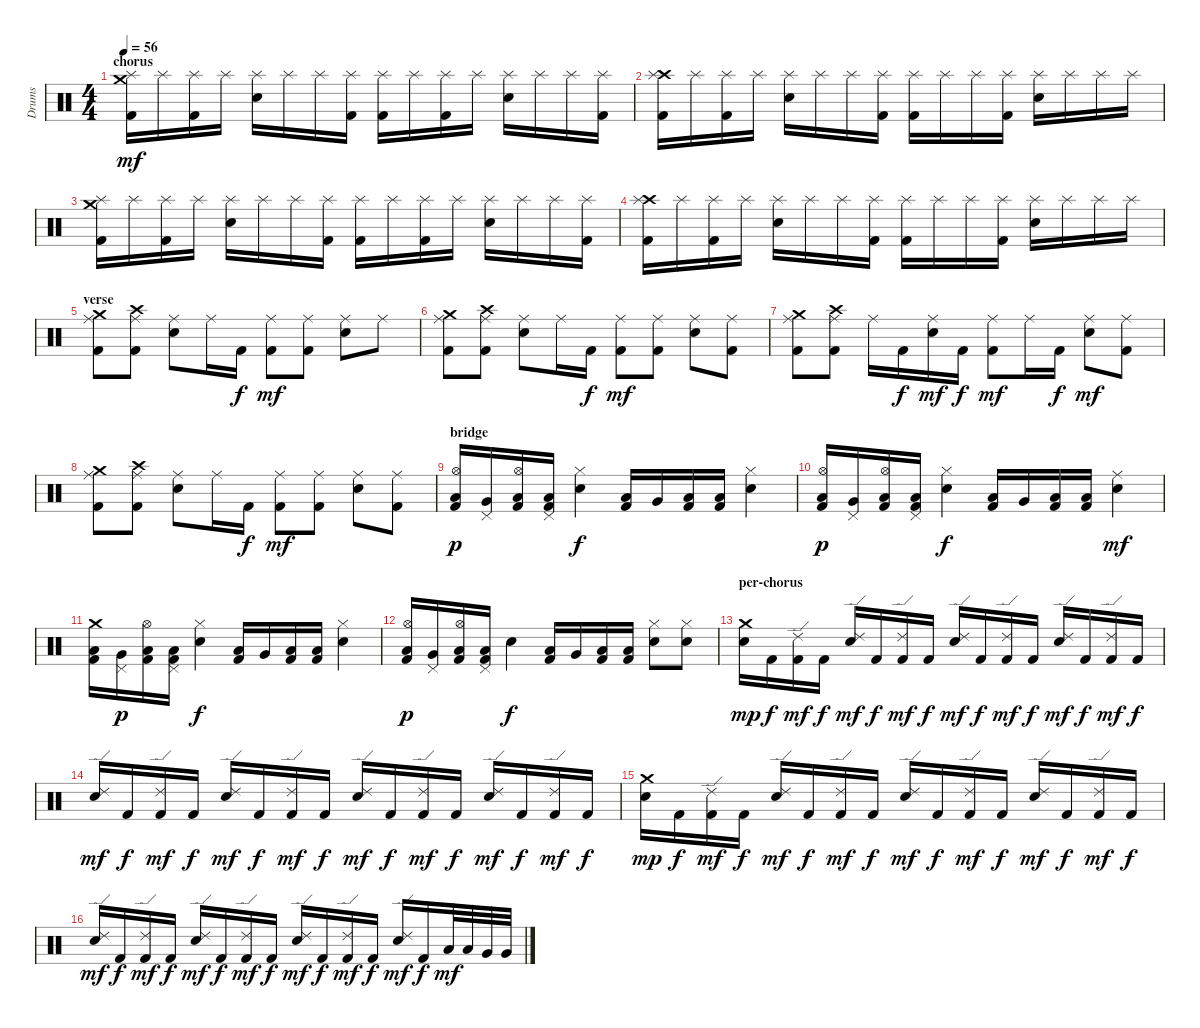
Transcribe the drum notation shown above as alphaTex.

\track ("Drums" "Drums") {instrument percussion}
\staff {score}
\articulation defaults
\ts (4 4)
\section ("" "chorus")
\tempo 56
\clef neutral
\ks c
("Crash medium (hit)" "Splash (hit)" "Kick (hit) 2").16{dy mf} "Splash (hit)".16 ("Splash (hit)" "Kick (hit) 2").16 "Splash (hit)".16 ("Splash (hit)" "Snare (hit) 2").16 "Splash (hit)".16 "Splash (hit)".16 ("Splash (hit)" "Kick (hit) 2").16 ("Splash (hit)" "Kick (hit) 2").16 "Splash (hit)".16 ("Splash (hit)" "Kick (hit) 2").16 "Splash (hit)".16 ("Splash (hit)" "Snare (hit) 2").16 "Splash (hit)".16 "Splash (hit)".16 ("Splash (hit)" "Kick (hit) 2").16 |
("Crash high (hit)" "Splash (hit)" "Kick (hit) 2").16 "Splash (hit)".16 ("Splash (hit)" "Kick (hit) 2").16 "Splash (hit)".16 ("Splash (hit)" "Snare (hit) 2").16 "Splash (hit)".16 "Splash (hit)".16 ("Splash (hit)" "Kick (hit) 2").16 ("Splash (hit)" "Kick (hit) 2").16 "Splash (hit)".16 "Splash (hit)".16 ("Splash (hit)" "Kick (hit) 2").16 ("Splash (hit)" "Snare (hit) 2").16 "Splash (hit)".16 "Splash (hit)".16 "Splash (hit)".16 |
("Crash medium (hit)" "Splash (hit)" "Kick (hit) 2").16 "Splash (hit)".16 ("Splash (hit)" "Kick (hit) 2").16 "Splash (hit)".16 ("Splash (hit)" "Snare (hit) 2").16 "Splash (hit)".16 "Splash (hit)".16 ("Splash (hit)" "Kick (hit) 2").16 ("Splash (hit)" "Kick (hit) 2").16 "Splash (hit)".16 ("Splash (hit)" "Kick (hit) 2").16 "Splash (hit)".16 ("Splash (hit)" "Snare (hit) 2").16 "Splash (hit)".16 "Splash (hit)".16 ("Splash (hit)" "Kick (hit) 2").16 |
("Crash high (hit)" "Splash (hit)" "Kick (hit) 2").16 "Splash (hit)".16 ("Splash (hit)" "Kick (hit) 2").16 "Splash (hit)".16 ("Splash (hit)" "Snare (hit) 2").16 "Splash (hit)".16 "Splash (hit)".16 ("Splash (hit)" "Kick (hit) 2").16 ("Splash (hit)" "Kick (hit) 2").16 "Splash (hit)".16 "Splash (hit)".16 ("Splash (hit)" "Kick (hit) 2").16 ("Splash (hit)" "Snare (hit) 2").16 "Splash (hit)".16 "Splash (hit)".16 "Splash (hit)".16 |
\section ("" "verse")
("Crash medium (hit)" "Ride (middle)" "Kick (hit) 2").8 ("Crash high (hit)" "Ride (middle)" "Kick (hit) 2").8 ("Ride (middle)" "Snare (hit) 2").8 "Ride (middle)".16 "Kick (hit) 2".16{dy f} ("Ride (middle)" "Kick (hit) 2").8{dy mf} ("Ride (middle)" "Kick (hit) 2").8 ("Ride (middle)" "Snare (hit) 2").8 "Ride (middle)".8 |
("Crash medium (hit)" "Ride (middle)" "Kick (hit) 2").8 ("Crash high (hit)" "Ride (middle)" "Kick (hit) 2").8 ("Ride (middle)" "Snare (hit) 2").8 "Ride (middle)".16 "Kick (hit) 2".16{dy f} ("Ride (middle)" "Kick (hit) 2").8{dy mf} ("Ride (middle)" "Kick (hit) 2").8 ("Ride (middle)" "Snare (hit) 2").8 ("Ride (middle)" "Kick (hit) 2").8 |
("Crash medium (hit)" "Ride (middle)" "Kick (hit) 2").8 ("Crash high (hit)" "Ride (middle)" "Kick (hit) 2").8 "Ride (middle)".16 "Kick (hit) 2".16{dy f} ("Ride (middle)" "Snare (hit) 2").16{dy mf} "Kick (hit) 2".16{dy f} ("Ride (middle)" "Kick (hit) 2").8{dy mf} "Ride (middle)".16 "Kick (hit) 2".16{dy f} ("Ride (middle)" "Snare (hit) 2").8{dy mf} ("Ride (middle)" "Kick (hit) 2").8 |
("Crash medium (hit)" "Ride (middle)" "Kick (hit) 2").8 ("Crash high (hit)" "Ride (middle)" "Kick (hit) 2").8 ("Ride (middle)" "Snare (hit) 2").8 "Ride (middle)".16 "Kick (hit) 2".16{dy f} ("Ride (middle)" "Kick (hit) 2").8{dy mf} ("Ride (middle)" "Kick (hit) 2").8 ("Ride (middle)" "Snare (hit) 2").8 ("Ride (middle)" "Kick (hit) 2").8 |
\section ("" "bridge")
("Hi-Hat (open)" "Low Floor Tom (hit)" "Kick (hit) 2").16{dy p} ("Pedal Hi-Hat (hit)" "Very Low Tom (hit)").16 ("Hi-Hat (open)" "Low Floor Tom (hit)" "Kick (hit) 2").16 ("Pedal Hi-Hat (hit)" "Low Floor Tom (hit)" "Kick (hit) 2").16 ("Hi-Hat (closed)" "Snare (hit) 2").4{dy f} ("Low Floor Tom (hit)" "Kick (hit) 2").16 "Very Low Tom (hit)".16 ("Low Floor Tom (hit)" "Kick (hit) 2").16 ("Low Floor Tom (hit)" "Kick (hit) 2").16 ("Hi-Hat (closed)" "Snare (hit) 2").4 |
("Hi-Hat (open)" "Low Floor Tom (hit)" "Kick (hit) 2").16{dy p} ("Pedal Hi-Hat (hit)" "Very Low Tom (hit)").16 ("Hi-Hat (open)" "Low Floor Tom (hit)" "Kick (hit) 2").16 ("Pedal Hi-Hat (hit)" "Low Floor Tom (hit)" "Kick (hit) 2").16 ("Hi-Hat (closed)" "Snare (hit) 2").4{dy f} ("Low Floor Tom (hit)" "Kick (hit) 2").16 "Very Low Tom (hit)".16 ("Low Floor Tom (hit)" "Kick (hit) 2").16 ("Low Floor Tom (hit)" "Kick (hit) 2").16 ("Ride (middle)" "Snare (hit) 2").4{dy mf} |
("Crash medium (hit)" "Low Floor Tom (hit)" "Kick (hit) 2").16 ("Pedal Hi-Hat (hit)" "Very Low Tom (hit)").16{dy p} ("Hi-Hat (open)" "Low Floor Tom (hit)" "Kick (hit) 2").16 ("Pedal Hi-Hat (hit)" "Low Floor Tom (hit)" "Kick (hit) 2").16 ("Hi-Hat (closed)" "Snare (hit) 2").4{dy f} ("Low Floor Tom (hit)" "Kick (hit) 2").16 "Very Low Tom (hit)".16 ("Low Floor Tom (hit)" "Kick (hit) 2").16 ("Low Floor Tom (hit)" "Kick (hit) 2").16 ("Hi-Hat (closed)" "Snare (hit) 2").4 |
("Hi-Hat (open)" "Low Floor Tom (hit)" "Kick (hit) 2").16{dy p} ("Pedal Hi-Hat (hit)" "Very Low Tom (hit)").16 ("Hi-Hat (open)" "Low Floor Tom (hit)" "Kick (hit) 2").16 ("Pedal Hi-Hat (hit)" "Low Floor Tom (hit)" "Kick (hit) 2").16 "Snare (hit) 2".4{dy f} ("Low Floor Tom (hit)" "Kick (hit) 2").16 "Very Low Tom (hit)".16 ("Low Floor Tom (hit)" "Kick (hit) 2").16 ("Low Floor Tom (hit)" "Kick (hit) 2").16 ("Hi-Hat (closed)" "Snare (hit) 2").8 ("Hi-Hat (closed)" "Snare (hit) 2").8 |
\section ("" "per-chorus")
("Crash medium (hit)" "Snare (hit) 2").16{dy mp} "Kick (hit) 2".16{dy f} ("Ride (edge) 2" "Kick (hit) 2").16{dy mf} "Kick (hit) 2".16{dy f} ("Ride (edge) 2" "Snare (hit) 2").16{dy mf} "Kick (hit) 2".16{dy f} ("Ride (edge) 2" "Kick (hit) 2").16{dy mf} "Kick (hit) 2".16{dy f} ("Ride (edge) 2" "Snare (hit) 2").16{dy mf} "Kick (hit) 2".16{dy f} ("Ride (edge) 2" "Kick (hit) 2").16{dy mf} "Kick (hit) 2".16{dy f} ("Ride (edge) 2" "Snare (hit) 2").16{dy mf} "Kick (hit) 2".16{dy f} ("Ride (edge) 2" "Kick (hit) 2").16{dy mf} "Kick (hit) 2".16{dy f} |
("Ride (edge) 2" "Snare (hit) 2").16{dy mf} "Kick (hit) 2".16{dy f} ("Ride (edge) 2" "Kick (hit) 2").16{dy mf} "Kick (hit) 2".16{dy f} ("Ride (edge) 2" "Snare (hit) 2").16{dy mf} "Kick (hit) 2".16{dy f} ("Ride (edge) 2" "Kick (hit) 2").16{dy mf} "Kick (hit) 2".16{dy f} ("Ride (edge) 2" "Snare (hit) 2").16{dy mf} "Kick (hit) 2".16{dy f} ("Ride (edge) 2" "Kick (hit) 2").16{dy mf} "Kick (hit) 2".16{dy f} ("Ride (edge) 2" "Snare (hit) 2").16{dy mf} "Kick (hit) 2".16{dy f} ("Ride (edge) 2" "Kick (hit) 2").16{dy mf} "Kick (hit) 2".16{dy f} |
("Crash medium (hit)" "Snare (hit) 2").16{dy mp} "Kick (hit) 2".16{dy f} ("Ride (edge) 2" "Kick (hit) 2").16{dy mf} "Kick (hit) 2".16{dy f} ("Ride (edge) 2" "Snare (hit) 2").16{dy mf} "Kick (hit) 2".16{dy f} ("Ride (edge) 2" "Kick (hit) 2").16{dy mf} "Kick (hit) 2".16{dy f} ("Ride (edge) 2" "Snare (hit) 2").16{dy mf} "Kick (hit) 2".16{dy f} ("Ride (edge) 2" "Kick (hit) 2").16{dy mf} "Kick (hit) 2".16{dy f} ("Ride (edge) 2" "Snare (hit) 2").16{dy mf} "Kick (hit) 2".16{dy f} ("Ride (edge) 2" "Kick (hit) 2").16{dy mf} "Kick (hit) 2".16{dy f} |
("Ride (edge) 2" "Snare (hit) 2").16{dy mf} "Kick (hit) 2".16{dy f} ("Ride (edge) 2" "Kick (hit) 2").16{dy mf} "Kick (hit) 2".16{dy f} ("Ride (edge) 2" "Snare (hit) 2").16{dy mf} "Kick (hit) 2".16{dy f} ("Ride (edge) 2" "Kick (hit) 2").16{dy mf} "Kick (hit) 2".16{dy f} ("Ride (edge) 2" "Snare (hit) 2").16{dy mf} "Kick (hit) 2".16{dy f} ("Ride (edge) 2" "Kick (hit) 2").16{dy mf} "Kick (hit) 2".16{dy f} ("Ride (edge) 2" "Snare (hit) 2").16{dy mf} "Kick (hit) 2".16{dy f} "Low Tom (hit)".32{dy mf} "Low Tom (hit)".32 "Very Low Tom (hit)".32 "Very Low Tom (hit)".32
